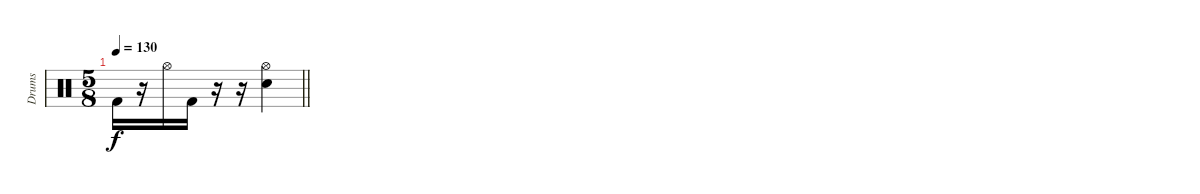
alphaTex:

\track ("Drums" "Drums") {instrument percussion}
\staff {score}
\articulation defaults
\ts (5 8)
\tempo 130
\clef neutral
\barLineRight lightlight
\ks c "Kick (hit) 2".16{dy f}
r.16 "Hi-Hat (open)".16 "Kick (hit) 2".16 r.16 r.16 ("Hi-Hat (open)" "Electric Snare (hit)").4
